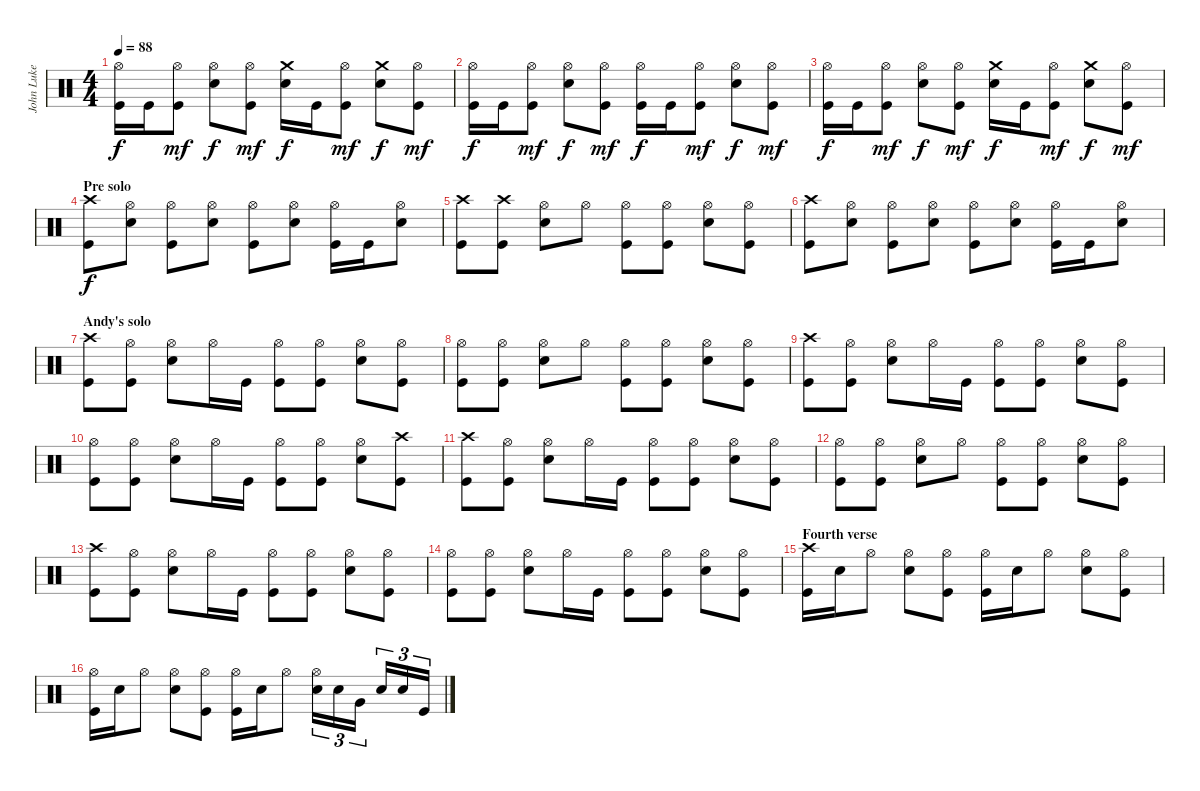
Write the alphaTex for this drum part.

\track ("John Luke (Drums)" "John Luke ") {instrument percussion}
\staff {score}
\articulation defaults
\ts (4 4)
\tempo 88
\clef neutral
\ks c
("Hi-Hat (open)" "Kick (hit)").16{dy f} "Kick (hit)".16 ("Hi-Hat (open)" "Kick (hit)").8{dy mf} ("Hi-Hat (open)" "Electric Snare (hit)").8{dy f} ("Hi-Hat (open)" "Kick (hit)").8{dy mf} ("Crash medium (hit)" "Electric Snare (hit)").16{dy f} "Kick (hit)".16 ("Hi-Hat (open)" "Kick (hit)").8{dy mf} ("Crash medium (hit)" "Electric Snare (hit)").8{dy f} ("Hi-Hat (open)" "Kick (hit)").8{dy mf} |
("Hi-Hat (open)" "Kick (hit)").16{dy f} "Kick (hit)".16 ("Hi-Hat (open)" "Kick (hit)").8{dy mf} ("Hi-Hat (open)" "Electric Snare (hit)").8{dy f} ("Hi-Hat (open)" "Kick (hit)").8{dy mf} ("Hi-Hat (open)" "Kick (hit)").16{dy f} "Kick (hit)".16 ("Hi-Hat (open)" "Kick (hit)").8{dy mf} ("Hi-Hat (open)" "Electric Snare (hit)").8{dy f} ("Hi-Hat (open)" "Kick (hit)").8{dy mf} |
("Hi-Hat (open)" "Kick (hit)").16{dy f} "Kick (hit)".16 ("Hi-Hat (open)" "Kick (hit)").8{dy mf} ("Hi-Hat (open)" "Electric Snare (hit)").8{dy f} ("Hi-Hat (open)" "Kick (hit)").8{dy mf} ("Crash medium (hit)" "Electric Snare (hit)").16{dy f} "Kick (hit)".16 ("Hi-Hat (open)" "Kick (hit)").8{dy mf} ("Crash medium (hit)" "Electric Snare (hit)").8{dy f} ("Hi-Hat (open)" "Kick (hit)").8{dy mf} |
\section ("" "Pre solo")
("Crash high (hit)" "Kick (hit)").8{dy f} ("Hi-Hat (open)" "Electric Snare (hit)").8 ("Hi-Hat (open)" "Kick (hit)").8 ("Hi-Hat (open)" "Electric Snare (hit)").8 ("Hi-Hat (open)" "Kick (hit)").8 ("Hi-Hat (open)" "Electric Snare (hit)").8 ("Hi-Hat (open)" "Kick (hit)").16 "Kick (hit)".16 ("Hi-Hat (open)" "Electric Snare (hit)").8 |
("Crash high (hit)" "Kick (hit)").8 ("Crash high (hit)" "Kick (hit)").8 ("Hi-Hat (open)" "Electric Snare (hit)").8 "Hi-Hat (open)".8 ("Hi-Hat (open)" "Kick (hit)").8 ("Hi-Hat (open)" "Kick (hit)").8 ("Hi-Hat (open)" "Electric Snare (hit)").8 ("Hi-Hat (open)" "Kick (hit)").8 |
("Crash high (hit)" "Kick (hit)").8 ("Hi-Hat (open)" "Electric Snare (hit)").8 ("Hi-Hat (open)" "Kick (hit)").8 ("Hi-Hat (open)" "Electric Snare (hit)").8 ("Hi-Hat (open)" "Kick (hit)").8 ("Hi-Hat (open)" "Electric Snare (hit)").8 ("Hi-Hat (open)" "Kick (hit)").16 "Kick (hit)".16 ("Hi-Hat (open)" "Electric Snare (hit)").8 |
\section ("" "Andy's solo")
("Crash high (hit)" "Kick (hit)").8 ("Hi-Hat (open)" "Kick (hit)").8 ("Hi-Hat (open)" "Electric Snare (hit)").8 "Hi-Hat (open)".16 "Kick (hit)".16 ("Hi-Hat (open)" "Kick (hit)").8 ("Hi-Hat (open)" "Kick (hit)").8 ("Hi-Hat (open)" "Electric Snare (hit)").8 ("Hi-Hat (open)" "Kick (hit)").8 |
("Hi-Hat (open)" "Kick (hit)").8 ("Hi-Hat (open)" "Kick (hit)").8 ("Hi-Hat (open)" "Electric Snare (hit)").8 "Hi-Hat (open)".8 ("Hi-Hat (open)" "Kick (hit)").8 ("Hi-Hat (open)" "Kick (hit)").8 ("Hi-Hat (open)" "Electric Snare (hit)").8 ("Hi-Hat (open)" "Kick (hit)").8 |
("Crash high (hit)" "Kick (hit)").8 ("Hi-Hat (open)" "Kick (hit)").8 ("Hi-Hat (open)" "Electric Snare (hit)").8 "Hi-Hat (open)".16 "Kick (hit)".16 ("Hi-Hat (open)" "Kick (hit)").8 ("Hi-Hat (open)" "Kick (hit)").8 ("Hi-Hat (open)" "Electric Snare (hit)").8 ("Hi-Hat (open)" "Kick (hit)").8 |
("Hi-Hat (open)" "Kick (hit)").8 ("Hi-Hat (open)" "Kick (hit)").8 ("Hi-Hat (open)" "Electric Snare (hit)").8 "Hi-Hat (open)".16 "Kick (hit)".16 ("Hi-Hat (open)" "Kick (hit)").8 ("Hi-Hat (open)" "Kick (hit)").8 ("Hi-Hat (open)" "Electric Snare (hit)").8 ("Crash high (hit)" "Kick (hit)").8 |
("Crash high (hit)" "Kick (hit)").8 ("Hi-Hat (open)" "Kick (hit)").8 ("Hi-Hat (open)" "Electric Snare (hit)").8 "Hi-Hat (open)".16 "Kick (hit)".16 ("Hi-Hat (open)" "Kick (hit)").8 ("Hi-Hat (open)" "Kick (hit)").8 ("Hi-Hat (open)" "Electric Snare (hit)").8 ("Hi-Hat (open)" "Kick (hit)").8 |
("Hi-Hat (open)" "Kick (hit)").8 ("Hi-Hat (open)" "Kick (hit)").8 ("Hi-Hat (open)" "Electric Snare (hit)").8 "Hi-Hat (open)".8 ("Hi-Hat (open)" "Kick (hit)").8 ("Hi-Hat (open)" "Kick (hit)").8 ("Hi-Hat (open)" "Electric Snare (hit)").8 ("Hi-Hat (open)" "Kick (hit)").8 |
("Crash high (hit)" "Kick (hit)").8 ("Hi-Hat (open)" "Kick (hit)").8 ("Hi-Hat (open)" "Electric Snare (hit)").8 "Hi-Hat (open)".16 "Kick (hit)".16 ("Hi-Hat (open)" "Kick (hit)").8 ("Hi-Hat (open)" "Kick (hit)").8 ("Hi-Hat (open)" "Electric Snare (hit)").8 ("Hi-Hat (open)" "Kick (hit)").8 |
("Hi-Hat (open)" "Kick (hit)").8 ("Hi-Hat (open)" "Kick (hit)").8 ("Hi-Hat (open)" "Electric Snare (hit)").8 "Hi-Hat (open)".16 "Kick (hit)".16 ("Hi-Hat (open)" "Kick (hit)").8 ("Hi-Hat (open)" "Kick (hit)").8 ("Hi-Hat (open)" "Electric Snare (hit)").8 ("Hi-Hat (open)" "Kick (hit)").8 |
\section ("" "Fourth verse")
("Crash high (hit)" "Kick (hit)").16 "Electric Snare (hit)".16 "Hi-Hat (open)".8 ("Hi-Hat (open)" "Electric Snare (hit)").8 ("Hi-Hat (open)" "Kick (hit)").8 ("Hi-Hat (open)" "Kick (hit)").16 "Electric Snare (hit)".16 "Hi-Hat (open)".8 ("Hi-Hat (open)" "Electric Snare (hit)").8 ("Hi-Hat (open)" "Kick (hit)").8 |
("Hi-Hat (open)" "Kick (hit)").16 "Electric Snare (hit)".16 "Hi-Hat (open)".8 ("Hi-Hat (open)" "Electric Snare (hit)").8 ("Hi-Hat (open)" "Kick (hit)").8 ("Hi-Hat (open)" "Kick (hit)").16 "Electric Snare (hit)".16 "Hi-Hat (open)".8 ("Hi-Hat (open)" "Electric Snare (hit)").16{tu (3 2)} "Electric Snare (hit)".16{tu (3 2)} "Very Low Tom (hit)".16{tu (3 2)} "Electric Snare (hit)".16{tu (3 2)} "Electric Snare (hit)".16{tu (3 2)} "Kick (hit)".16{tu (3 2)}
